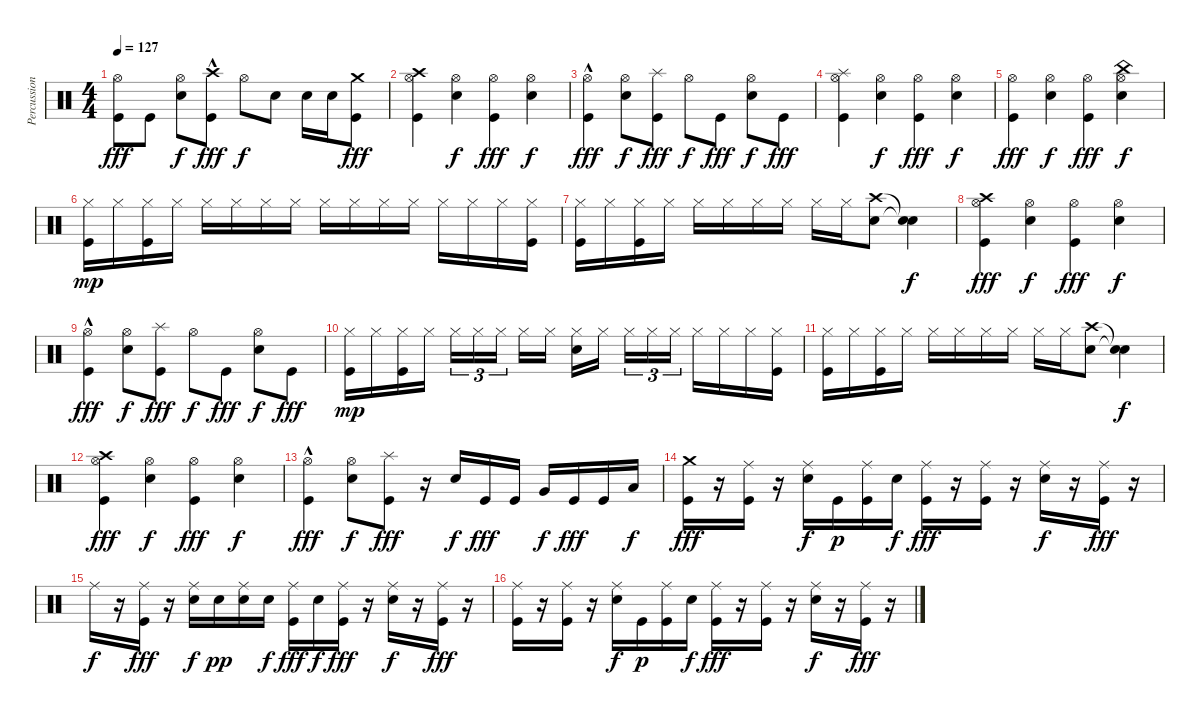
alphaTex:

\track ("Percussion" "Percussion") {instrument percussion}
\staff {score}
\articulation defaults
\ts (4 4)
\tempo 127
\clef neutral
\ks c
("Hi-Hat (open)" "Kick (hit)").8{dy fff} "Kick (hit)".8 ("Electric Snare (hit)" "Hi-Hat (open)").8{dy f} ("Crash high (hit)" "Kick (hit)"{hac}).8{dy fff} "Hi-Hat (open)".8{dy f} "Electric Snare (hit)".8 "Electric Snare (hit)".16 "Electric Snare (hit)".16 ("Crash medium (hit)" "Kick (hit)").8{dy fff} |
("Crash high (hit)" "Hi-Hat (open)" "Kick (hit)").4 ("Electric Snare (hit)" "Hi-Hat (open)").4{dy f} ("Hi-Hat (open)" "Kick (hit)").4{dy fff} ("Electric Snare (hit)" "Hi-Hat (open)").4{dy f} |
("Hi-Hat (open)" "Kick (hit)"{hac}).4{dy fff} ("Electric Snare (hit)" "Hi-Hat (open)").8{dy f} ("Splash (hit)" "Kick (hit)").8{dy fff} "Hi-Hat (open)".8{dy f} "Kick (hit)".8{dy fff} ("Hi-Hat (open)" "Electric Snare (hit)").8{dy f} "Kick (hit)".8{dy fff} |
("Splash (hit)" "Hi-Hat (open)" "Kick (hit)").4 ("Electric Snare (hit)" "Hi-Hat (open)").4{dy f} ("Hi-Hat (open)" "Kick (hit)").4{dy fff} ("Electric Snare (hit)" "Hi-Hat (open)").4{dy f} |
("Hi-Hat (open)" "Kick (hit)").4{dy fff} ("Electric Snare (hit)" "Hi-Hat (open)").4{dy f} ("Hi-Hat (open)" "Kick (hit)").4{dy fff} ("China (hit)" "Electric Snare (hit)" "Hi-Hat (open)").4{dy f} |
("Kick (hit)" "Hi-Hat (closed)").16{dy mp} "Hi-Hat (closed)".16 ("Kick (hit)" "Hi-Hat (closed)").16 "Hi-Hat (closed)".16 "Hi-Hat (closed)".16 "Hi-Hat (closed)".16 "Hi-Hat (closed)".16 "Hi-Hat (closed)".16 "Hi-Hat (closed)".16 "Hi-Hat (closed)".16 "Hi-Hat (closed)".16 "Hi-Hat (closed)".16 "Hi-Hat (closed)".16 "Hi-Hat (closed)".16 "Hi-Hat (closed)".16 ("Kick (hit)" "Hi-Hat (closed)").16 |
("Kick (hit)" "Hi-Hat (closed)").16 "Hi-Hat (closed)".16 ("Kick (hit)" "Hi-Hat (closed)").16 "Hi-Hat (closed)".16 "Hi-Hat (closed)".16 "Hi-Hat (closed)".16 "Hi-Hat (closed)".16 "Hi-Hat (closed)".16 "Hi-Hat (closed)".16 "Hi-Hat (closed)".16 ("Crash high (hit)" "Electric Snare (hit)").8 ("Snare (hit)"{t} "Snare (hit)"{t}).4{dy f} |
("Crash high (hit)" "Hi-Hat (open)" "Kick (hit)").4{dy fff} ("Electric Snare (hit)" "Hi-Hat (open)").4{dy f} ("Hi-Hat (open)" "Kick (hit)").4{dy fff} ("Electric Snare (hit)" "Hi-Hat (open)").4{dy f} |
("Hi-Hat (open)" "Kick (hit)"{hac}).4{dy fff} ("Electric Snare (hit)" "Hi-Hat (open)").8{dy f} ("Splash (hit)" "Kick (hit)").8{dy fff} "Hi-Hat (open)".8{dy f} "Kick (hit)".8{dy fff} ("Hi-Hat (open)" "Electric Snare (hit)").8{dy f} "Kick (hit)".8{dy fff} |
("Kick (hit)" "Hi-Hat (closed)").16{dy mp} "Hi-Hat (closed)".16 ("Kick (hit)" "Hi-Hat (closed)").16 "Hi-Hat (closed)".16 "Hi-Hat (closed)".16{tu (3 2)} "Hi-Hat (closed)".16{tu (3 2)} "Hi-Hat (closed)".16{tu (3 2)} "Hi-Hat (closed)".16 "Hi-Hat (closed)".16 ("Electric Snare (hit)" "Hi-Hat (closed)").16 "Hi-Hat (closed)".16 "Hi-Hat (closed)".16{tu (3 2)} "Hi-Hat (closed)".16{tu (3 2)} "Hi-Hat (closed)".16{tu (3 2)} "Hi-Hat (closed)".16 "Hi-Hat (closed)".16 "Hi-Hat (closed)".16 ("Kick (hit)" "Hi-Hat (closed)").16 |
("Kick (hit)" "Hi-Hat (closed)").16 "Hi-Hat (closed)".16 ("Kick (hit)" "Hi-Hat (closed)").16 "Hi-Hat (closed)".16 "Hi-Hat (closed)".16 "Hi-Hat (closed)".16 "Hi-Hat (closed)".16 "Hi-Hat (closed)".16 "Hi-Hat (closed)".16 "Hi-Hat (closed)".16 ("Crash high (hit)" "Electric Snare (hit)").8 ("Snare (hit)"{t} "Snare (hit)"{t}).4{dy f} |
("Crash high (hit)" "Hi-Hat (open)" "Kick (hit)").4{dy fff} ("Electric Snare (hit)" "Hi-Hat (open)").4{dy f} ("Hi-Hat (open)" "Kick (hit)").4{dy fff} ("Electric Snare (hit)" "Hi-Hat (open)").4{dy f} |
("Hi-Hat (open)" "Kick (hit)"{hac}).4{dy fff} ("Electric Snare (hit)" "Hi-Hat (open)").8{dy f} ("Splash (hit)" "Kick (hit)").8{dy fff} r.16 "Electric Snare (hit)".16{dy f} "Kick (hit)".16{dy fff} "Kick (hit)".16 "Very Low Tom (hit)".16{dy f} "Kick (hit)".16{dy fff} "Kick (hit)".16 "Low Floor Tom (hit)".16{dy f} |
("Crash medium (hit)" "Kick (hit)").16{dy fff} r.16 ("Ride (middle)" "Kick (hit)").16 r.16 ("Ride (middle)" "Electric Snare (hit)").16{dy f} "Kick (hit)".16{dy p} ("Ride (middle)" "Kick (hit)").16 "Electric Snare (hit)".16{dy f} ("Ride (middle)" "Kick (hit)").16{dy fff} r.16 ("Ride (middle)" "Kick (hit)").16 r.16 ("Ride (middle)" "Electric Snare (hit)").16{dy f} r.16 ("Ride (middle)" "Kick (hit)").16{dy fff} r.16 |
"Ride (middle)".16{dy f} r.16 ("Ride (middle)" "Kick (hit)").16{dy fff} r.16 ("Ride (middle)" "Electric Snare (hit)").16{dy f} "Electric Snare (hit)".16{dy pp} ("Ride (middle)" "Electric Snare (hit)").16 "Electric Snare (hit)".16{dy f} ("Ride (middle)" "Kick (hit)").16{dy fff} "Electric Snare (hit)".16{dy f} ("Ride (middle)" "Kick (hit)").16{dy fff} r.16 ("Ride (middle)" "Electric Snare (hit)").16{dy f} r.16 ("Ride (middle)" "Kick (hit)").16{dy fff} r.16 |
("Ride (middle)" "Kick (hit)").16 r.16 ("Ride (middle)" "Kick (hit)").16 r.16 ("Ride (middle)" "Electric Snare (hit)").16{dy f} "Kick (hit)".16{dy p} ("Ride (middle)" "Kick (hit)").16 "Electric Snare (hit)".16{dy f} ("Ride (middle)" "Kick (hit)").16{dy fff} r.16 ("Ride (middle)" "Kick (hit)").16 r.16 ("Ride (middle)" "Electric Snare (hit)").16{dy f} r.16 ("Ride (middle)" "Kick (hit)").16{dy fff} r.16
